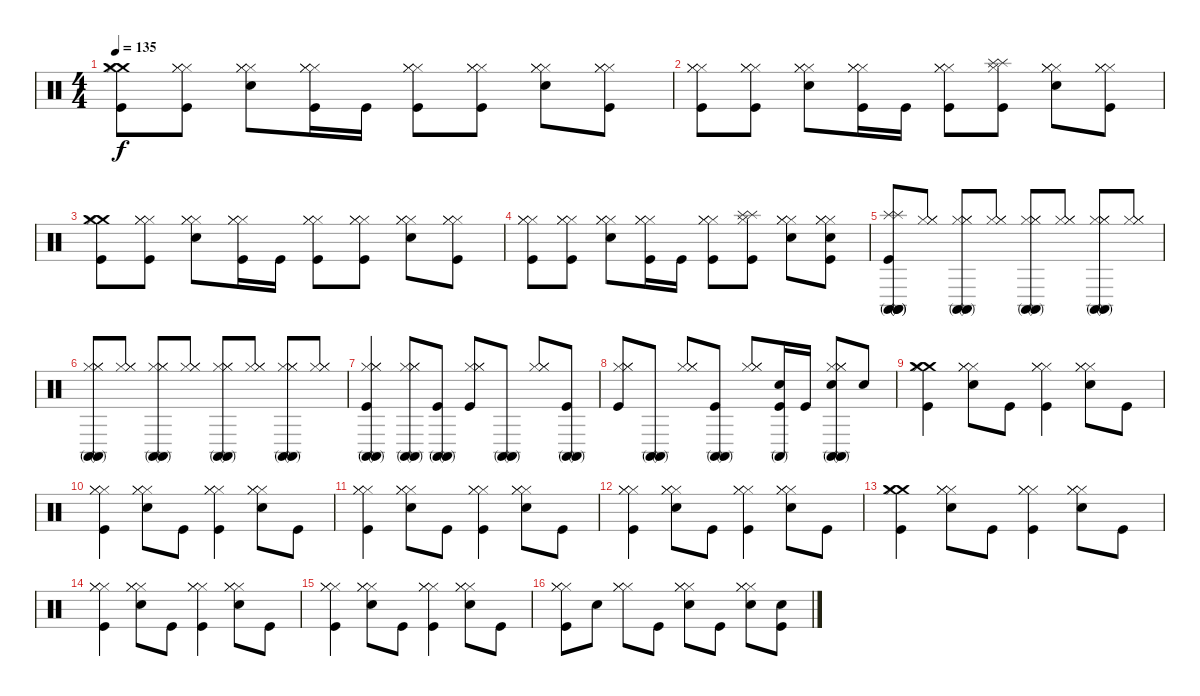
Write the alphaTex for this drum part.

\track "" {instrument percussion}
\staff {score}
\articulation defaults
\ts (4 4)
\tempo 135
\clef neutral
\ks c
("Crash medium (hit)" "Crash medium (hit)" "Hi-Hat (closed)" "Kick (hit)").8{dy f} ("Hi-Hat (closed)" "Hi-Hat (closed)" "Hi-Hat (closed)" "Kick (hit)").8 ("Hi-Hat (closed)" "Hi-Hat (closed)" "Hi-Hat (closed)" "Metronome (bell)").8 ("Hi-Hat (closed)" "Hi-Hat (closed)" "Hi-Hat (closed)" "Kick (hit)").16 "Kick (hit)".16 ("Hi-Hat (closed)" "Hi-Hat (closed)" "Hi-Hat (closed)" "Kick (hit)").8 ("Hi-Hat (closed)" "Hi-Hat (closed)" "Hi-Hat (closed)" "Kick (hit)").8 ("Hi-Hat (closed)" "Hi-Hat (closed)" "Hi-Hat (closed)" "Metronome (bell)").8 ("Hi-Hat (closed)" "Hi-Hat (closed)" "Hi-Hat (closed)" "Kick (hit)").8 |
("Hi-Hat (closed)" "Hi-Hat (closed)" "Hi-Hat (closed)" "Kick (hit)").8 ("Hi-Hat (closed)" "Hi-Hat (closed)" "Hi-Hat (closed)" "Kick (hit)").8 ("Hi-Hat (closed)" "Hi-Hat (closed)" "Hi-Hat (closed)" "Metronome (bell)").8 ("Hi-Hat (closed)" "Hi-Hat (closed)" "Hi-Hat (closed)" "Kick (hit)").16 "Kick (hit)".16 ("Hi-Hat (closed)" "Hi-Hat (closed)" "Hi-Hat (closed)" "Kick (hit)").8 ("Splash (hit)" "Splash (hit)" "Hi-Hat (closed)" "Kick (hit)").8 ("Hi-Hat (closed)" "Hi-Hat (closed)" "Hi-Hat (closed)" "Metronome (bell)").8 ("Hi-Hat (closed)" "Hi-Hat (closed)" "Hi-Hat (closed)" "Kick (hit)").8 |
("Crash medium (hit)" "Crash medium (hit)" "Hi-Hat (closed)" "Kick (hit)").8 ("Hi-Hat (closed)" "Hi-Hat (closed)" "Hi-Hat (closed)" "Kick (hit)").8 ("Hi-Hat (closed)" "Hi-Hat (closed)" "Hi-Hat (closed)" "Metronome (bell)").8 ("Hi-Hat (closed)" "Hi-Hat (closed)" "Hi-Hat (closed)" "Kick (hit)").16 "Kick (hit)".16 ("Hi-Hat (closed)" "Hi-Hat (closed)" "Hi-Hat (closed)" "Kick (hit)").8 ("Hi-Hat (closed)" "Hi-Hat (closed)" "Hi-Hat (closed)" "Kick (hit)").8 ("Hi-Hat (closed)" "Hi-Hat (closed)" "Hi-Hat (closed)" "Metronome (bell)").8 ("Hi-Hat (closed)" "Hi-Hat (closed)" "Hi-Hat (closed)" "Kick (hit)").8 |
("Hi-Hat (closed)" "Hi-Hat (closed)" "Hi-Hat (closed)" "Kick (hit)").8 ("Hi-Hat (closed)" "Hi-Hat (closed)" "Hi-Hat (closed)" "Kick (hit)").8 ("Hi-Hat (closed)" "Hi-Hat (closed)" "Hi-Hat (closed)" "Metronome (bell)").8 ("Hi-Hat (closed)" "Hi-Hat (closed)" "Hi-Hat (closed)" "Kick (hit)").16 "Kick (hit)".16 ("Hi-Hat (closed)" "Hi-Hat (closed)" "Hi-Hat (closed)" "Kick (hit)").8 ("Splash (hit)" "Splash (hit)" "Hi-Hat (closed)" "Kick (hit)").8 ("Hi-Hat (closed)" "Hi-Hat (closed)" "Hi-Hat (closed)" "Metronome (bell)").8 ("Hi-Hat (closed)" "Hi-Hat (closed)" "Hi-Hat (closed)" "Metronome (bell)" "Kick (hit)").8 |
("Splash (hit)" "Splash (hit)" "Conga high (mute)" "Conga high (mute)" "Conga high (mute)" "Kick (hit)").8 ("Hi-Hat (closed)" "Hi-Hat (closed)" "Hi-Hat (closed)").8 ("Hi-Hat (closed)" "Hi-Hat (closed)" "Hi-Hat (closed)" "Conga high (mute)" "Conga high (mute)").8 ("Hi-Hat (closed)" "Hi-Hat (closed)" "Hi-Hat (closed)").8 ("Hi-Hat (closed)" "Hi-Hat (closed)" "Hi-Hat (closed)" "Conga high (mute)" "Conga high (mute)").8 ("Hi-Hat (closed)" "Hi-Hat (closed)" "Hi-Hat (closed)").8 ("Hi-Hat (closed)" "Hi-Hat (closed)" "Hi-Hat (closed)" "Conga high (mute)" "Conga high (mute)").8 ("Hi-Hat (closed)" "Hi-Hat (closed)" "Hi-Hat (closed)").8 |
("Hi-Hat (closed)" "Hi-Hat (closed)" "Hi-Hat (closed)" "Conga high (mute)" "Conga high (mute)").8 ("Hi-Hat (closed)" "Hi-Hat (closed)" "Hi-Hat (closed)").8 ("Hi-Hat (closed)" "Hi-Hat (closed)" "Hi-Hat (closed)" "Conga high (mute)" "Conga high (mute)").8 ("Hi-Hat (closed)" "Hi-Hat (closed)" "Hi-Hat (closed)").8 ("Hi-Hat (closed)" "Hi-Hat (closed)" "Hi-Hat (closed)" "Conga high (mute)" "Conga high (mute)").8 ("Hi-Hat (closed)" "Hi-Hat (closed)" "Hi-Hat (closed)").8 ("Hi-Hat (closed)" "Hi-Hat (closed)" "Hi-Hat (closed)" "Conga high (mute)" "Conga high (mute)").8 ("Hi-Hat (closed)" "Hi-Hat (closed)" "Hi-Hat (closed)").8 |
("Hi-Hat (closed)" "Hi-Hat (closed)" "Hi-Hat (closed)" "Conga high (mute)" "Conga high (mute)" "Kick (hit)").4 ("Hi-Hat (closed)" "Hi-Hat (closed)" "Hi-Hat (closed)" "Conga high (mute)" "Conga high (mute)").8 ("Conga high (mute)" "Conga high (mute)" "Kick (hit)").8 ("Hi-Hat (closed)" "Hi-Hat (closed)" "Hi-Hat (closed)" "Kick (hit)").8 ("Conga high (mute)" "Conga high (mute)").8 ("Hi-Hat (closed)" "Hi-Hat (closed)" "Hi-Hat (closed)").8 ("Conga high (mute)" "Conga high (mute)" "Kick (hit)").8 |
("Hi-Hat (closed)" "Hi-Hat (closed)" "Hi-Hat (closed)" "Kick (hit)").8 ("Conga high (mute)" "Conga high (mute)").8 ("Hi-Hat (closed)" "Hi-Hat (closed)" "Hi-Hat (closed)").8 ("Conga high (mute)" "Conga high (mute)" "Kick (hit)").8 ("Hi-Hat (closed)" "Hi-Hat (closed)" "Hi-Hat (closed)").8 ("Metronome (bell)" "Conga high (mute)" "Kick (hit)").16 "Kick (hit)".16 ("Hi-Hat (closed)" "Hi-Hat (closed)" "Hi-Hat (closed)" "Metronome (bell)" "Conga high (mute)" "Conga high (mute)").8 "Metronome (bell)".8 |
("Crash medium (hit)" "Crash medium (hit)" "Hi-Hat (closed)" "Kick (hit)").4 ("Hi-Hat (closed)" "Hi-Hat (closed)" "Hi-Hat (closed)" "Metronome (bell)").8 "Kick (hit)".8 ("Hi-Hat (closed)" "Hi-Hat (closed)" "Hi-Hat (closed)" "Kick (hit)").4 ("Hi-Hat (closed)" "Hi-Hat (closed)" "Hi-Hat (closed)" "Metronome (bell)").8 "Kick (hit)".8 |
("Hi-Hat (closed)" "Hi-Hat (closed)" "Hi-Hat (closed)" "Kick (hit)").4 ("Hi-Hat (closed)" "Hi-Hat (closed)" "Hi-Hat (closed)" "Metronome (bell)").8 "Kick (hit)".8 ("Hi-Hat (closed)" "Hi-Hat (closed)" "Hi-Hat (closed)" "Kick (hit)").4 ("Hi-Hat (closed)" "Hi-Hat (closed)" "Hi-Hat (closed)" "Metronome (bell)").8 "Kick (hit)".8 |
("Hi-Hat (closed)" "Hi-Hat (closed)" "Hi-Hat (closed)" "Kick (hit)").4 ("Hi-Hat (closed)" "Hi-Hat (closed)" "Hi-Hat (closed)" "Metronome (bell)").8 "Kick (hit)".8 ("Hi-Hat (closed)" "Hi-Hat (closed)" "Hi-Hat (closed)" "Kick (hit)").4 ("Hi-Hat (closed)" "Hi-Hat (closed)" "Hi-Hat (closed)" "Metronome (bell)").8 "Kick (hit)".8 |
("Hi-Hat (closed)" "Hi-Hat (closed)" "Hi-Hat (closed)" "Kick (hit)").4 ("Hi-Hat (closed)" "Hi-Hat (closed)" "Hi-Hat (closed)" "Metronome (bell)").8 "Kick (hit)".8 ("Hi-Hat (closed)" "Hi-Hat (closed)" "Hi-Hat (closed)" "Kick (hit)").4 ("Hi-Hat (closed)" "Hi-Hat (closed)" "Hi-Hat (closed)" "Metronome (bell)").8 "Kick (hit)".8 |
("Crash medium (hit)" "Crash medium (hit)" "Hi-Hat (closed)" "Kick (hit)").4 ("Hi-Hat (closed)" "Hi-Hat (closed)" "Hi-Hat (closed)" "Metronome (bell)").8 "Kick (hit)".8 ("Hi-Hat (closed)" "Hi-Hat (closed)" "Hi-Hat (closed)" "Kick (hit)").4 ("Hi-Hat (closed)" "Hi-Hat (closed)" "Hi-Hat (closed)" "Metronome (bell)").8 "Kick (hit)".8 |
("Hi-Hat (closed)" "Hi-Hat (closed)" "Hi-Hat (closed)" "Kick (hit)").4 ("Hi-Hat (closed)" "Hi-Hat (closed)" "Hi-Hat (closed)" "Metronome (bell)").8 "Kick (hit)".8 ("Hi-Hat (closed)" "Hi-Hat (closed)" "Hi-Hat (closed)" "Kick (hit)").4 ("Hi-Hat (closed)" "Hi-Hat (closed)" "Hi-Hat (closed)" "Metronome (bell)").8 "Kick (hit)".8 |
("Hi-Hat (closed)" "Hi-Hat (closed)" "Hi-Hat (closed)" "Kick (hit)").4 ("Hi-Hat (closed)" "Hi-Hat (closed)" "Hi-Hat (closed)" "Metronome (bell)").8 "Kick (hit)".8 ("Hi-Hat (closed)" "Hi-Hat (closed)" "Hi-Hat (closed)" "Kick (hit)").4 ("Hi-Hat (closed)" "Hi-Hat (closed)" "Hi-Hat (closed)" "Metronome (bell)").8 "Kick (hit)".8 |
("Hi-Hat (closed)" "Hi-Hat (closed)" "Hi-Hat (closed)" "Kick (hit)").8 "Metronome (bell)".8 ("Hi-Hat (closed)" "Hi-Hat (closed)" "Hi-Hat (closed)").8 "Kick (hit)".8 ("Hi-Hat (closed)" "Hi-Hat (closed)" "Hi-Hat (closed)" "Metronome (bell)").8 "Kick (hit)".8 ("Hi-Hat (closed)" "Hi-Hat (closed)" "Hi-Hat (closed)" "Metronome (bell)").8 ("Metronome (bell)" "Kick (hit)").8
